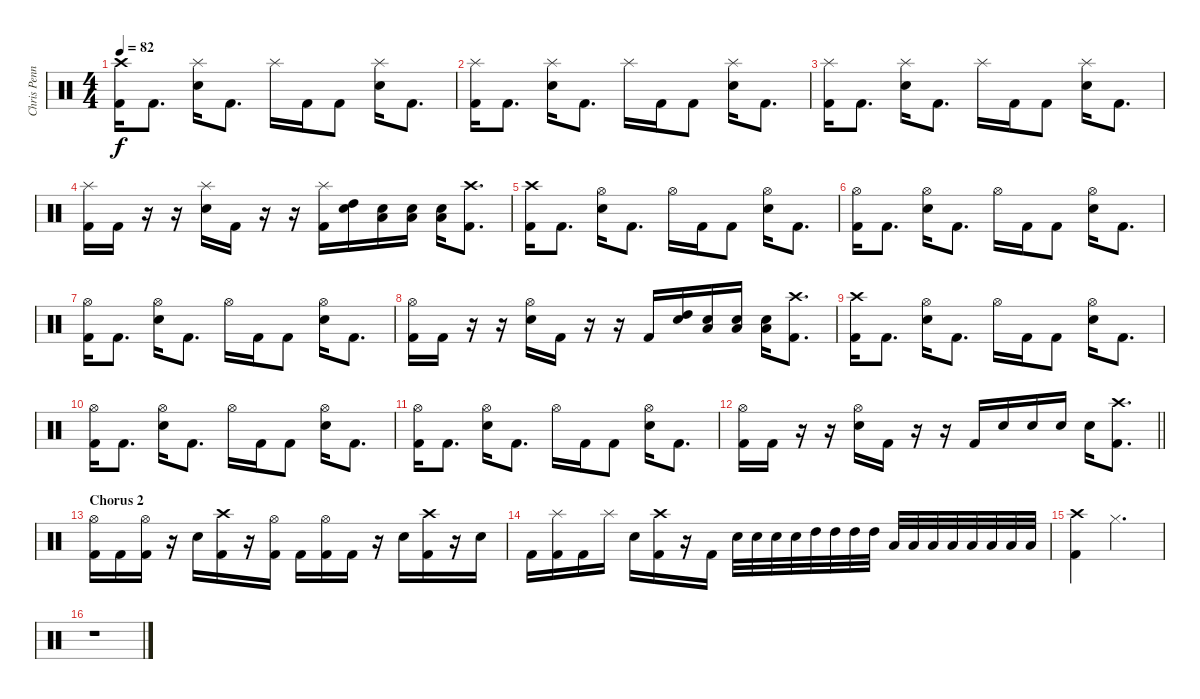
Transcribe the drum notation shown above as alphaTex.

\track ("Chris Pennie" "Chris Penn") {instrument percussion}
\staff {score}
\articulation defaults
\ts (4 4)
\tempo 82
\clef neutral
\ks c
("Crash high (hit)" "Kick (hit) 2").16{dy f} "Kick (hit) 2".8{d} ("Splash (hit)" "Electric Snare (hit)").16 "Kick (hit) 2".8{d} "Splash (hit)".16 "Kick (hit) 2".16 "Kick (hit) 2".8 ("Splash (hit)" "Electric Snare (hit)").16 "Kick (hit) 2".8{d} |
("Splash (hit)" "Kick (hit) 2").16 "Kick (hit) 2".8{d} ("Splash (hit)" "Electric Snare (hit)").16 "Kick (hit) 2".8{d} "Splash (hit)".16 "Kick (hit) 2".16 "Kick (hit) 2".8 ("Splash (hit)" "Electric Snare (hit)").16 "Kick (hit) 2".8{d} |
("Splash (hit)" "Kick (hit) 2").16 "Kick (hit) 2".8{d} ("Splash (hit)" "Electric Snare (hit)").16 "Kick (hit) 2".8{d} "Splash (hit)".16 "Kick (hit) 2".16 "Kick (hit) 2".8 ("Splash (hit)" "Electric Snare (hit)").16 "Kick (hit) 2".8{d} |
("Splash (hit)" "Kick (hit) 2").16 "Kick (hit) 2".16 r.16 r.16 ("Splash (hit)" "Electric Snare (hit)").16 "Kick (hit) 2".16 r.16 r.16 ("Splash (hit)" "Kick (hit) 2").16 ("High Tom (hit)" "Electric Snare (hit)").16 ("Electric Snare (hit)" "Low Floor Tom (hit)").16 ("Electric Snare (hit)" "Low Floor Tom (hit)").16 ("Electric Snare (hit)" "Low Floor Tom (hit)").16 ("Crash high (hit)" "Kick (hit) 2").8{d} |
("Crash high (hit)" "Kick (hit) 2").16 "Kick (hit) 2".8{d} ("Hi-Hat (open)" "Electric Snare (hit)").16 "Kick (hit) 2".8{d} "Hi-Hat (open)".16 "Kick (hit) 2".16 "Kick (hit) 2".8 ("Hi-Hat (open)" "Electric Snare (hit)").16 "Kick (hit) 2".8{d} |
("Hi-Hat (open)" "Kick (hit) 2").16 "Kick (hit) 2".8{d} ("Hi-Hat (open)" "Electric Snare (hit)").16 "Kick (hit) 2".8{d} "Hi-Hat (open)".16 "Kick (hit) 2".16 "Kick (hit) 2".8 ("Hi-Hat (open)" "Electric Snare (hit)").16 "Kick (hit) 2".8{d} |
("Hi-Hat (open)" "Kick (hit) 2").16 "Kick (hit) 2".8{d} ("Hi-Hat (open)" "Electric Snare (hit)").16 "Kick (hit) 2".8{d} "Hi-Hat (open)".16 "Kick (hit) 2".16 "Kick (hit) 2".8 ("Hi-Hat (open)" "Electric Snare (hit)").16 "Kick (hit) 2".8{d} |
("Hi-Hat (open)" "Kick (hit) 2").16 "Kick (hit) 2".16 r.16 r.16 ("Hi-Hat (open)" "Electric Snare (hit)").16 "Kick (hit) 2".16 r.16 r.16 "Kick (hit) 2".16 ("High Tom (hit)" "Electric Snare (hit)").16 ("Electric Snare (hit)" "Low Floor Tom (hit)").16 ("Electric Snare (hit)" "Low Floor Tom (hit)").16 ("Electric Snare (hit)" "Low Floor Tom (hit)").16 ("Crash high (hit)" "Kick (hit) 2").8{d} |
("Crash high (hit)" "Kick (hit) 2").16 "Kick (hit) 2".8{d} ("Hi-Hat (open)" "Electric Snare (hit)").16 "Kick (hit) 2".8{d} "Hi-Hat (open)".16 "Kick (hit) 2".16 "Kick (hit) 2".8 ("Hi-Hat (open)" "Electric Snare (hit)").16 "Kick (hit) 2".8{d} |
("Hi-Hat (open)" "Kick (hit) 2").16 "Kick (hit) 2".8{d} ("Hi-Hat (open)" "Electric Snare (hit)").16 "Kick (hit) 2".8{d} "Hi-Hat (open)".16 "Kick (hit) 2".16 "Kick (hit) 2".8 ("Hi-Hat (open)" "Electric Snare (hit)").16 "Kick (hit) 2".8{d} |
("Hi-Hat (open)" "Kick (hit) 2").16 "Kick (hit) 2".8{d} ("Hi-Hat (open)" "Electric Snare (hit)").16 "Kick (hit) 2".8{d} "Hi-Hat (open)".16 "Kick (hit) 2".16 "Kick (hit) 2".8 ("Hi-Hat (open)" "Electric Snare (hit)").16 "Kick (hit) 2".8{d} |
\barLineRight lightlight
("Hi-Hat (open)" "Kick (hit) 2").16 "Kick (hit) 2".16 r.16 r.16 ("Hi-Hat (open)" "Electric Snare (hit)").16 "Kick (hit) 2".16 r.16 r.16 "Kick (hit) 2".16 "Electric Snare (hit)".16 "Electric Snare (hit)".16 "Electric Snare (hit)".16 "Electric Snare (hit)".16 ("Crash high (hit)" "Kick (hit) 2").8{d} |
\section ("" "Chorus 2")
("Hi-Hat (open)" "Kick (hit) 2").16 "Kick (hit) 2".16 ("Hi-Hat (open)" "Kick (hit) 2").16 r.16 "Electric Snare (hit)".16 ("Crash high (hit)" "Kick (hit) 2").16 r.16 ("Hi-Hat (open)" "Kick (hit) 2").16 "Kick (hit) 2".16 ("Hi-Hat (open)" "Kick (hit) 2").16 "Kick (hit) 2".16 r.16 "Electric Snare (hit)".16 ("Crash high (hit)" "Kick (hit) 2").16 r.16 "Electric Snare (hit)".16 |
"Kick (hit) 2".16 ("Splash (hit)" "Kick (hit) 2").16 "Kick (hit) 2".16 "Splash (hit)".16 "Electric Snare (hit)".16 ("Crash high (hit)" "Kick (hit) 2").16 r.16 "Kick (hit) 2".16 "Electric Snare (hit)".32 "Electric Snare (hit)".32 "Electric Snare (hit)".32 "Electric Snare (hit)".32 "High Tom (hit)".32 "High Tom (hit)".32 "High Tom (hit)".32 "High Tom (hit)".32 "Low Floor Tom (hit)".32 "Low Floor Tom (hit)".32 "Low Floor Tom (hit)".32 "Low Floor Tom (hit)".32 "Low Floor Tom (hit)".32 "Low Floor Tom (hit)".32 "Low Floor Tom (hit)".32 "Low Floor Tom (hit)".32 |
("Crash high (hit)" "Kick (hit) 2").4 "Hi-Hat (closed)".2{d} |
r.1
